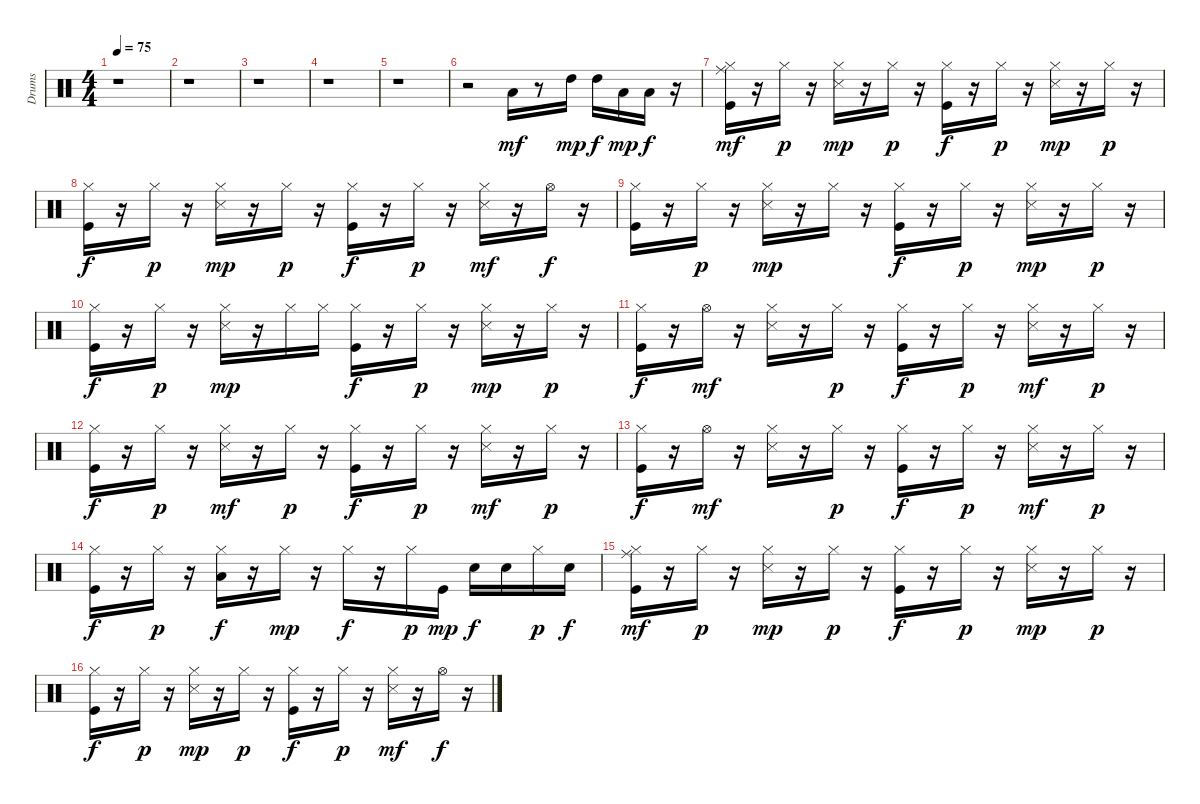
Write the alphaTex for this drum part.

\track ("Drums   " "Drums   ") {instrument percussion}
\staff {score}
\articulation defaults
\ts (4 4)
\tempo 75
\clef neutral
\ks c
r.1{dy mf} |
r.1 |
r.1 |
r.1 |
r.1 |
r.2 "Low Tom (hit)".16 r.8 "High Tom (hit)".16{dy mp} "High Tom (hit)".16{dy f} "Low Tom (hit)".16{dy mp} "Low Tom (hit)".16{dy f} r.16 |
("Kick (hit)" "Hi-Hat (closed)" "Ride (middle)").16{dy mf} r.16 "Hi-Hat (closed)".16{dy p} r.16 ("Hi-Hat (closed)" "Snare (side stick) 3").16{dy mp} r.16 "Hi-Hat (closed)".16{dy p} r.16 ("Kick (hit)" "Hi-Hat (closed)").16{dy f} r.16 "Hi-Hat (closed)".16{dy p} r.16 ("Hi-Hat (closed)" "Snare (side stick) 3").16{dy mp} r.16 "Hi-Hat (closed)".16{dy p} r.16 |
("Kick (hit)" "Hi-Hat (closed)").16{dy f} r.16 "Hi-Hat (closed)".16{dy p} r.16 ("Hi-Hat (closed)" "Snare (side stick) 3").16{dy mp} r.16 "Hi-Hat (closed)".16{dy p} r.16 ("Kick (hit)" "Hi-Hat (closed)").16{dy f} r.16 "Hi-Hat (closed)".16{dy p} r.16 ("Hi-Hat (closed)" "Snare (side stick) 3").16{dy mf} r.16 "Hi-Hat (open)".16{dy f} r.16 |
("Kick (hit)" "Hi-Hat (closed)").16 r.16 "Hi-Hat (closed)".16{dy p} r.16 ("Hi-Hat (closed)" "Snare (side stick) 3").16{dy mp} r.16 "Hi-Hat (closed)".16 r.16 ("Kick (hit)" "Hi-Hat (closed)").16{dy f} r.16 "Hi-Hat (closed)".16{dy p} r.16 ("Hi-Hat (closed)" "Snare (side stick) 3").16{dy mp} r.16 "Hi-Hat (closed)".16{dy p} r.16 |
("Kick (hit)" "Hi-Hat (closed)").16{dy f} r.16 "Hi-Hat (closed)".16{dy p} r.16 ("Hi-Hat (closed)" "Snare (side stick) 3").16{dy mp} r.16 "Hi-Hat (closed)".16 "Hi-Hat (closed)".16 ("Kick (hit)" "Hi-Hat (closed)").16{dy f} r.16 "Hi-Hat (closed)".16{dy p} r.16 ("Hi-Hat (closed)" "Snare (side stick) 3").16{dy mp} r.16 "Hi-Hat (closed)".16{dy p} r.16 |
("Kick (hit)" "Hi-Hat (closed)").16{dy f} r.16 "Hi-Hat (open)".16{dy mf} r.16 ("Hi-Hat (closed)" "Snare (side stick) 3").16 r.16 "Hi-Hat (closed)".16{dy p} r.16 ("Kick (hit)" "Hi-Hat (closed)").16{dy f} r.16 "Hi-Hat (closed)".16{dy p} r.16 ("Hi-Hat (closed)" "Snare (side stick) 3").16{dy mf} r.16 "Hi-Hat (closed)".16{dy p} r.16 |
("Kick (hit)" "Hi-Hat (closed)").16{dy f} r.16 "Hi-Hat (closed)".16{dy p} r.16 ("Hi-Hat (closed)" "Snare (side stick) 3").16{dy mf} r.16 "Hi-Hat (closed)".16{dy p} r.16 ("Kick (hit)" "Hi-Hat (closed)").16{dy f} r.16 "Hi-Hat (closed)".16{dy p} r.16 ("Hi-Hat (closed)" "Snare (side stick) 3").16{dy mf} r.16 "Hi-Hat (closed)".16{dy p} r.16 |
("Kick (hit)" "Hi-Hat (closed)").16{dy f} r.16 "Hi-Hat (open)".16{dy mf} r.16 ("Hi-Hat (closed)" "Snare (side stick) 3").16 r.16 "Hi-Hat (closed)".16{dy p} r.16 ("Kick (hit)" "Hi-Hat (closed)").16{dy f} r.16 "Hi-Hat (closed)".16{dy p} r.16 ("Hi-Hat (closed)" "Snare (side stick) 3").16{dy mf} r.16 "Hi-Hat (closed)".16{dy p} r.16 |
("Kick (hit)" "Hi-Hat (closed)").16{dy f} r.16 "Hi-Hat (closed)".16{dy p} r.16 ("Hi-Hat (closed)" "Low Tom (hit)").16{dy f} r.16 "Hi-Hat (closed)".16{dy mp} r.16 "Hi-Hat (closed)".16{dy f} r.16 "Hi-Hat (closed)".16{dy p} "Kick (hit)".16{dy mp} "Snare (hit) 2".16{dy f} "Snare (hit) 2".16 "Hi-Hat (closed)".16{dy p} "Snare (hit) 2".16{dy f} |
("Kick (hit)" "Hi-Hat (closed)" "Ride (middle)").16{dy mf} r.16 "Hi-Hat (closed)".16{dy p} r.16 ("Hi-Hat (closed)" "Snare (side stick) 3").16{dy mp} r.16 "Hi-Hat (closed)".16{dy p} r.16 ("Kick (hit)" "Hi-Hat (closed)").16{dy f} r.16 "Hi-Hat (closed)".16{dy p} r.16 ("Hi-Hat (closed)" "Snare (side stick) 3").16{dy mp} r.16 "Hi-Hat (closed)".16{dy p} r.16 |
("Kick (hit)" "Hi-Hat (closed)").16{dy f} r.16 "Hi-Hat (closed)".16{dy p} r.16 ("Hi-Hat (closed)" "Snare (side stick) 3").16{dy mp} r.16 "Hi-Hat (closed)".16{dy p} r.16 ("Kick (hit)" "Hi-Hat (closed)").16{dy f} r.16 "Hi-Hat (closed)".16{dy p} r.16 ("Hi-Hat (closed)" "Snare (side stick) 3").16{dy mf} r.16 "Hi-Hat (open)".16{dy f} r.16
